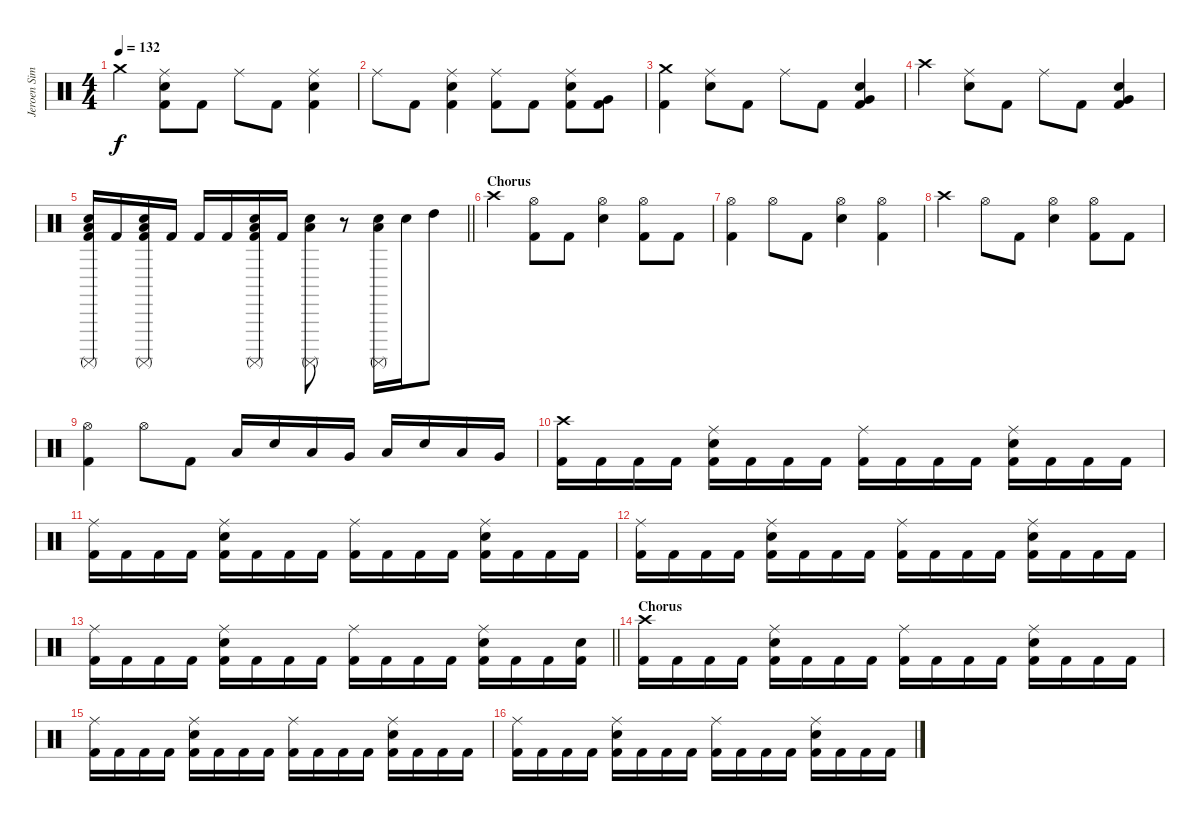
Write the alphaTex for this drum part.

\track ("Jeroen Simons" "Jeroen Sim") {instrument percussion}
\staff {score}
\articulation defaults
\ts (4 4)
\tempo 132
\clef neutral
\ks c "Crash medium (hit)".4{dy f}
("Ride (middle)" "Electric Snare (hit)" "Kick (hit) 2").8 "Kick (hit) 2".8 "Ride (middle)".8 "Kick (hit) 2".8 ("Ride (middle)" "Electric Snare (hit)" "Kick (hit) 2").4 |
"Ride (middle)".8 "Kick (hit) 2".8 ("Ride (middle)" "Electric Snare (hit)" "Kick (hit) 2").4 ("Ride (middle)" "Kick (hit) 2").8 "Kick (hit) 2".8 ("Ride (middle)" "Electric Snare (hit)" "Kick (hit) 2").8 ("Very Low Tom (hit)" "Kick (hit) 2").8 |
("Crash medium (hit)" "Kick (hit) 2").4 ("Ride (middle)" "Electric Snare (hit)").8 "Kick (hit) 2".8 "Ride (middle)".8 "Kick (hit) 2".8 ("Very Low Tom (hit)" "Electric Snare (hit)" "Kick (hit) 2").4 |
"Crash high (hit)".4 ("Ride (middle)" "Electric Snare (hit)").8 "Kick (hit) 2".8 "Ride (middle)".8 "Kick (hit) 2".8 ("Very Low Tom (hit)" "Electric Snare (hit)" "Kick (hit) 2").4 |
\barLineRight lightlight
("Surdo (mute)" "Low Tom (hit)" "Electric Snare (hit)" "Kick (hit) 2").16 "Kick (hit) 2".16 ("Surdo (mute)" "Low Tom (hit)" "Electric Snare (hit)" "Kick (hit) 2").16 "Kick (hit) 2".16 "Kick (hit) 2".16 "Kick (hit) 2".16 ("Surdo (mute)" "Low Tom (hit)" "Electric Snare (hit)" "Kick (hit) 2").16 "Kick (hit) 2".16 ("Surdo (mute)" "Low Tom (hit)" "Electric Snare (hit)").8 r.8 ("Surdo (mute)" "Low Tom (hit)" "Electric Snare (hit)").16 "Electric Snare (hit)".16 "High Tom (hit)".8 |
\section ("" "Chorus")
"Crash high (hit)".4 ("Hi-Hat (open)" "Kick (hit) 2").8 "Kick (hit) 2".8 ("Hi-Hat (open)" "Electric Snare (hit)").4 ("Hi-Hat (open)" "Kick (hit) 2").8 "Kick (hit) 2".8 |
("Hi-Hat (open)" "Kick (hit) 2").4 "Hi-Hat (open)".8 "Kick (hit) 2".8 ("Hi-Hat (open)" "Electric Snare (hit)").4 ("Hi-Hat (open)" "Kick (hit) 2").4 |
"Crash high (hit)".4 "Hi-Hat (open)".8 "Kick (hit) 2".8 ("Hi-Hat (open)" "Electric Snare (hit)").4 ("Hi-Hat (open)" "Kick (hit) 2").8 "Kick (hit) 2".8 |
("Hi-Hat (open)" "Kick (hit) 2").4 "Hi-Hat (open)".8 "Kick (hit) 2".8 "Low Tom (hit)".16 "Electric Snare (hit)".16 "Low Tom (hit)".16 "Very Low Tom (hit)".16 "Low Tom (hit)".16 "Electric Snare (hit)".16 "Low Tom (hit)".16 "Very Low Tom (hit)".16 |
("Crash high (hit)" "Kick (hit) 2").16 "Kick (hit) 2".16 "Kick (hit) 2".16 "Kick (hit) 2".16 ("Ride (middle)" "Electric Snare (hit)" "Kick (hit) 2").16 "Kick (hit) 2".16 "Kick (hit) 2".16 "Kick (hit) 2".16 ("Ride (middle)" "Kick (hit) 2").16 "Kick (hit) 2".16 "Kick (hit) 2".16 "Kick (hit) 2".16 ("Ride (middle)" "Electric Snare (hit)" "Kick (hit) 2").16 "Kick (hit) 2".16 "Kick (hit) 2".16 "Kick (hit) 2".16 |
("Ride (middle)" "Kick (hit) 2").16 "Kick (hit) 2".16 "Kick (hit) 2".16 "Kick (hit) 2".16 ("Ride (middle)" "Electric Snare (hit)" "Kick (hit) 2").16 "Kick (hit) 2".16 "Kick (hit) 2".16 "Kick (hit) 2".16 ("Ride (middle)" "Kick (hit) 2").16 "Kick (hit) 2".16 "Kick (hit) 2".16 "Kick (hit) 2".16 ("Ride (middle)" "Electric Snare (hit)" "Kick (hit) 2").16 "Kick (hit) 2".16 "Kick (hit) 2".16 "Kick (hit) 2".16 |
("Ride (middle)" "Kick (hit) 2").16 "Kick (hit) 2".16 "Kick (hit) 2".16 "Kick (hit) 2".16 ("Ride (middle)" "Electric Snare (hit)" "Kick (hit) 2").16 "Kick (hit) 2".16 "Kick (hit) 2".16 "Kick (hit) 2".16 ("Ride (middle)" "Kick (hit) 2").16 "Kick (hit) 2".16 "Kick (hit) 2".16 "Kick (hit) 2".16 ("Ride (middle)" "Electric Snare (hit)" "Kick (hit) 2").16 "Kick (hit) 2".16 "Kick (hit) 2".16 "Kick (hit) 2".16 |
\barLineRight lightlight
("Ride (middle)" "Kick (hit) 2").16 "Kick (hit) 2".16 "Kick (hit) 2".16 "Kick (hit) 2".16 ("Ride (middle)" "Electric Snare (hit)" "Kick (hit) 2").16 "Kick (hit) 2".16 "Kick (hit) 2".16 "Kick (hit) 2".16 ("Ride (middle)" "Kick (hit) 2").16 "Kick (hit) 2".16 "Kick (hit) 2".16 "Kick (hit) 2".16 ("Ride (middle)" "Electric Snare (hit)" "Kick (hit) 2").16 "Kick (hit) 2".16 "Kick (hit) 2".16 ("Electric Snare (hit)" "Kick (hit) 2").16 |
\section ("" "Chorus")
("Crash high (hit)" "Kick (hit) 2").16 "Kick (hit) 2".16 "Kick (hit) 2".16 "Kick (hit) 2".16 ("Ride (middle)" "Electric Snare (hit)" "Kick (hit) 2").16 "Kick (hit) 2".16 "Kick (hit) 2".16 "Kick (hit) 2".16 ("Ride (middle)" "Kick (hit) 2").16 "Kick (hit) 2".16 "Kick (hit) 2".16 "Kick (hit) 2".16 ("Ride (middle)" "Electric Snare (hit)" "Kick (hit) 2").16 "Kick (hit) 2".16 "Kick (hit) 2".16 "Kick (hit) 2".16 |
("Ride (middle)" "Kick (hit) 2").16 "Kick (hit) 2".16 "Kick (hit) 2".16 "Kick (hit) 2".16 ("Ride (middle)" "Electric Snare (hit)" "Kick (hit) 2").16 "Kick (hit) 2".16 "Kick (hit) 2".16 "Kick (hit) 2".16 ("Ride (middle)" "Kick (hit) 2").16 "Kick (hit) 2".16 "Kick (hit) 2".16 "Kick (hit) 2".16 ("Ride (middle)" "Electric Snare (hit)" "Kick (hit) 2").16 "Kick (hit) 2".16 "Kick (hit) 2".16 "Kick (hit) 2".16 |
("Ride (middle)" "Kick (hit) 2").16 "Kick (hit) 2".16 "Kick (hit) 2".16 "Kick (hit) 2".16 ("Ride (middle)" "Electric Snare (hit)" "Kick (hit) 2").16 "Kick (hit) 2".16 "Kick (hit) 2".16 "Kick (hit) 2".16 ("Ride (middle)" "Kick (hit) 2").16 "Kick (hit) 2".16 "Kick (hit) 2".16 "Kick (hit) 2".16 ("Ride (middle)" "Electric Snare (hit)" "Kick (hit) 2").16 "Kick (hit) 2".16 "Kick (hit) 2".16 "Kick (hit) 2".16
